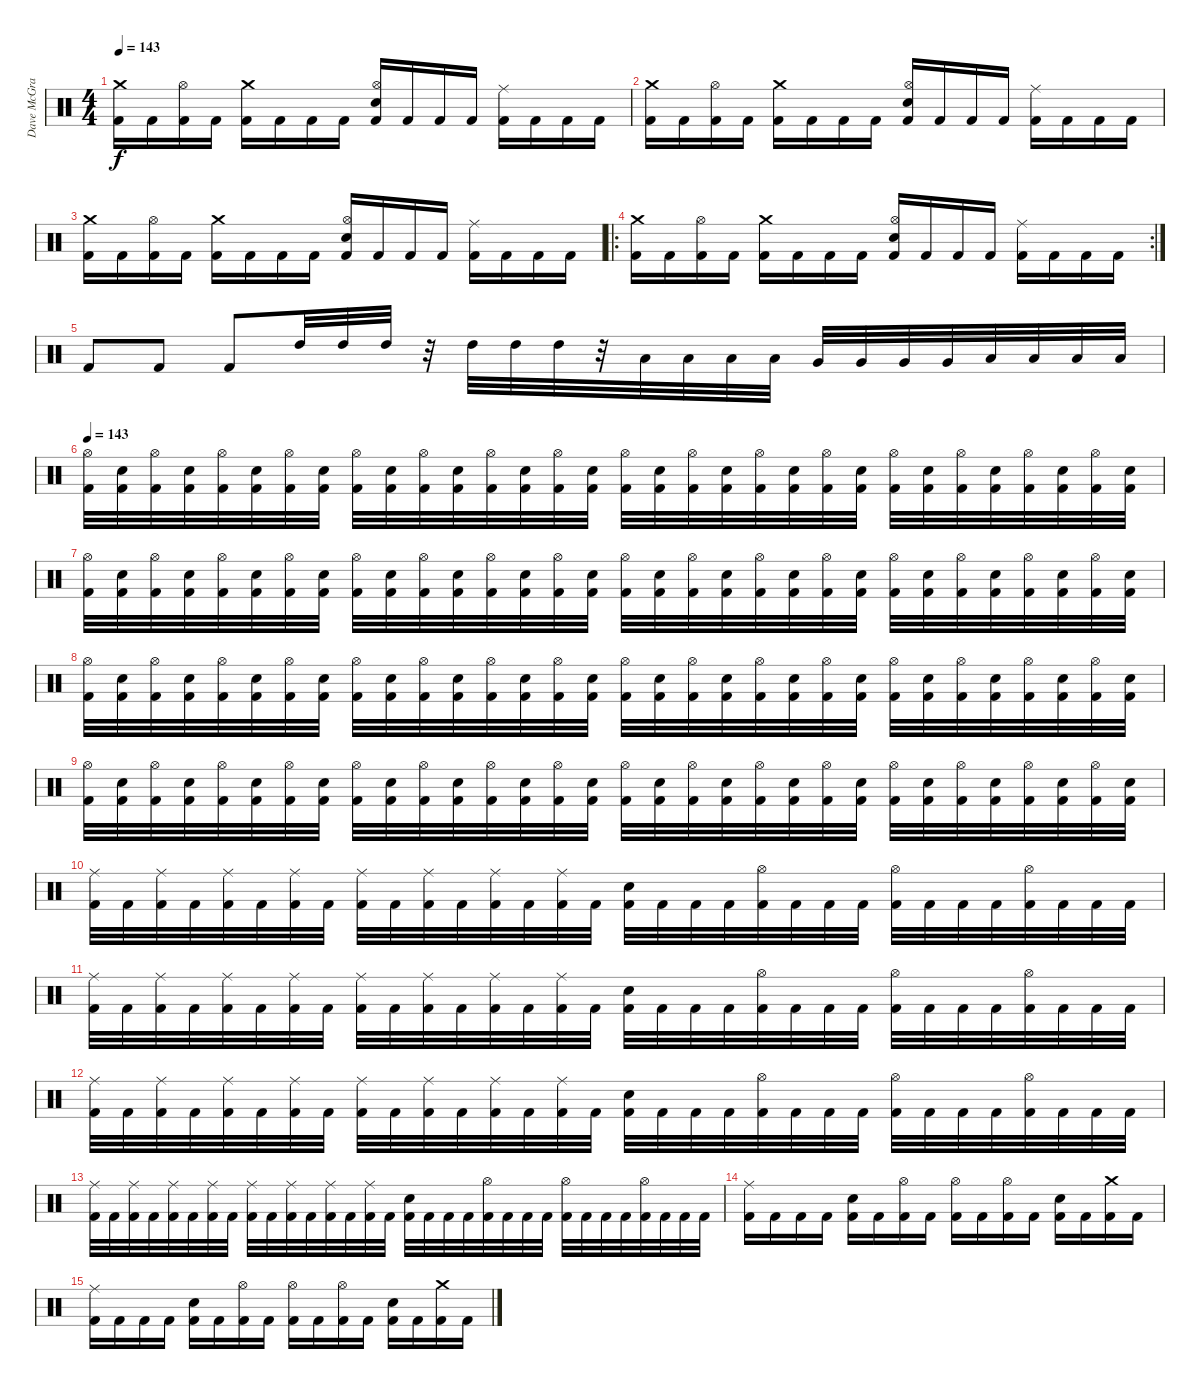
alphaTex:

\track ("Dave McGraw" "Dave McGra") {instrument percussion}
\staff {score}
\articulation defaults
\ts (4 4)
\tempo 143
\clef neutral
\ks c
("Crash medium (hit)" "Kick (hit) 2").16{dy f} "Kick (hit) 2".16 ("Hi-Hat (open)" "Kick (hit) 2").16 "Kick (hit) 2".16 ("Crash medium (hit)" "Kick (hit) 2").16 "Kick (hit) 2".16 "Kick (hit) 2".16 "Kick (hit) 2".16 ("Hi-Hat (open)" "Electric Snare (hit)" "Kick (hit) 2").16 "Kick (hit) 2".16 "Kick (hit) 2".16 "Kick (hit) 2".16 ("Ride (middle)" "Kick (hit) 2").16 "Kick (hit) 2".16 "Kick (hit) 2".16 "Kick (hit) 2".16 |
("Crash medium (hit)" "Kick (hit) 2").16 "Kick (hit) 2".16 ("Hi-Hat (open)" "Kick (hit) 2").16 "Kick (hit) 2".16 ("Crash medium (hit)" "Kick (hit) 2").16 "Kick (hit) 2".16 "Kick (hit) 2".16 "Kick (hit) 2".16 ("Hi-Hat (open)" "Electric Snare (hit)" "Kick (hit) 2").16 "Kick (hit) 2".16 "Kick (hit) 2".16 "Kick (hit) 2".16 ("Ride (middle)" "Kick (hit) 2").16 "Kick (hit) 2".16 "Kick (hit) 2".16 "Kick (hit) 2".16 |
("Crash medium (hit)" "Kick (hit) 2").16 "Kick (hit) 2".16 ("Hi-Hat (open)" "Kick (hit) 2").16 "Kick (hit) 2".16 ("Crash medium (hit)" "Kick (hit) 2").16 "Kick (hit) 2".16 "Kick (hit) 2".16 "Kick (hit) 2".16 ("Hi-Hat (open)" "Electric Snare (hit)" "Kick (hit) 2").16 "Kick (hit) 2".16 "Kick (hit) 2".16 "Kick (hit) 2".16 ("Ride (middle)" "Kick (hit) 2").16 "Kick (hit) 2".16 "Kick (hit) 2".16 "Kick (hit) 2".16 |
\ro
\rc 2
("Crash medium (hit)" "Kick (hit) 2").16 "Kick (hit) 2".16 ("Hi-Hat (open)" "Kick (hit) 2").16 "Kick (hit) 2".16 ("Crash medium (hit)" "Kick (hit) 2").16 "Kick (hit) 2".16 "Kick (hit) 2".16 "Kick (hit) 2".16 ("Hi-Hat (open)" "Electric Snare (hit)" "Kick (hit) 2").16 "Kick (hit) 2".16 "Kick (hit) 2".16 "Kick (hit) 2".16 ("Ride (middle)" "Kick (hit) 2").16 "Kick (hit) 2".16 "Kick (hit) 2".16 "Kick (hit) 2".16 |
"Kick (hit) 2".8 "Kick (hit) 2".8 "Kick (hit) 2".8 "High Tom (hit)".32 "High Tom (hit)".32 "High Tom (hit)".32 r.32 "High Tom (hit)".32 "High Tom (hit)".32 "High Tom (hit)".32 r.32 "Low Tom (hit)".32 "Low Tom (hit)".32 "Low Tom (hit)".32 "Low Tom (hit)".32 "Very Low Tom (hit)".32 "Very Low Tom (hit)".32 "Very Low Tom (hit)".32 "Very Low Tom (hit)".32 "Low Floor Tom (hit)".32 "Low Floor Tom (hit)".32 "Low Floor Tom (hit)".32 "Low Floor Tom (hit)".32 |
\tempo 143
("Hi-Hat (open)" "Kick (hit) 2").32 ("Electric Snare (hit)" "Kick (hit) 2").32 ("Hi-Hat (open)" "Kick (hit) 2").32 ("Electric Snare (hit)" "Kick (hit) 2").32 ("Hi-Hat (open)" "Kick (hit) 2").32 ("Electric Snare (hit)" "Kick (hit) 2").32 ("Hi-Hat (open)" "Kick (hit) 2").32 ("Electric Snare (hit)" "Kick (hit) 2").32 ("Hi-Hat (open)" "Kick (hit) 2").32 ("Electric Snare (hit)" "Kick (hit) 2").32 ("Hi-Hat (open)" "Kick (hit) 2").32 ("Electric Snare (hit)" "Kick (hit) 2").32 ("Hi-Hat (open)" "Kick (hit) 2").32 ("Electric Snare (hit)" "Kick (hit) 2").32 ("Hi-Hat (open)" "Kick (hit) 2").32 ("Electric Snare (hit)" "Kick (hit) 2").32 ("Hi-Hat (open)" "Kick (hit) 2").32 ("Electric Snare (hit)" "Kick (hit) 2").32 ("Hi-Hat (open)" "Kick (hit) 2").32 ("Electric Snare (hit)" "Kick (hit) 2").32 ("Hi-Hat (open)" "Kick (hit) 2").32 ("Electric Snare (hit)" "Kick (hit) 2").32 ("Hi-Hat (open)" "Kick (hit) 2").32 ("Electric Snare (hit)" "Kick (hit) 2").32 ("Hi-Hat (open)" "Kick (hit) 2").32 ("Electric Snare (hit)" "Kick (hit) 2").32 ("Hi-Hat (open)" "Kick (hit) 2").32 ("Electric Snare (hit)" "Kick (hit) 2").32 ("Hi-Hat (open)" "Kick (hit) 2").32 ("Electric Snare (hit)" "Kick (hit) 2").32 ("Hi-Hat (open)" "Kick (hit) 2").32 ("Electric Snare (hit)" "Kick (hit) 2").32 |
("Hi-Hat (open)" "Kick (hit) 2").32 ("Electric Snare (hit)" "Kick (hit) 2").32 ("Hi-Hat (open)" "Kick (hit) 2").32 ("Electric Snare (hit)" "Kick (hit) 2").32 ("Hi-Hat (open)" "Kick (hit) 2").32 ("Electric Snare (hit)" "Kick (hit) 2").32 ("Hi-Hat (open)" "Kick (hit) 2").32 ("Electric Snare (hit)" "Kick (hit) 2").32 ("Hi-Hat (open)" "Kick (hit) 2").32 ("Electric Snare (hit)" "Kick (hit) 2").32 ("Hi-Hat (open)" "Kick (hit) 2").32 ("Electric Snare (hit)" "Kick (hit) 2").32 ("Hi-Hat (open)" "Kick (hit) 2").32 ("Electric Snare (hit)" "Kick (hit) 2").32 ("Hi-Hat (open)" "Kick (hit) 2").32 ("Electric Snare (hit)" "Kick (hit) 2").32 ("Hi-Hat (open)" "Kick (hit) 2").32 ("Electric Snare (hit)" "Kick (hit) 2").32 ("Hi-Hat (open)" "Kick (hit) 2").32 ("Electric Snare (hit)" "Kick (hit) 2").32 ("Hi-Hat (open)" "Kick (hit) 2").32 ("Electric Snare (hit)" "Kick (hit) 2").32 ("Hi-Hat (open)" "Kick (hit) 2").32 ("Electric Snare (hit)" "Kick (hit) 2").32 ("Hi-Hat (open)" "Kick (hit) 2").32 ("Electric Snare (hit)" "Kick (hit) 2").32 ("Hi-Hat (open)" "Kick (hit) 2").32 ("Electric Snare (hit)" "Kick (hit) 2").32 ("Hi-Hat (open)" "Kick (hit) 2").32 ("Electric Snare (hit)" "Kick (hit) 2").32 ("Hi-Hat (open)" "Kick (hit) 2").32 ("Electric Snare (hit)" "Kick (hit) 2").32 |
("Hi-Hat (open)" "Kick (hit) 2").32 ("Electric Snare (hit)" "Kick (hit) 2").32 ("Hi-Hat (open)" "Kick (hit) 2").32 ("Electric Snare (hit)" "Kick (hit) 2").32 ("Hi-Hat (open)" "Kick (hit) 2").32 ("Electric Snare (hit)" "Kick (hit) 2").32 ("Hi-Hat (open)" "Kick (hit) 2").32 ("Electric Snare (hit)" "Kick (hit) 2").32 ("Hi-Hat (open)" "Kick (hit) 2").32 ("Electric Snare (hit)" "Kick (hit) 2").32 ("Hi-Hat (open)" "Kick (hit) 2").32 ("Electric Snare (hit)" "Kick (hit) 2").32 ("Hi-Hat (open)" "Kick (hit) 2").32 ("Electric Snare (hit)" "Kick (hit) 2").32 ("Hi-Hat (open)" "Kick (hit) 2").32 ("Electric Snare (hit)" "Kick (hit) 2").32 ("Hi-Hat (open)" "Kick (hit) 2").32 ("Electric Snare (hit)" "Kick (hit) 2").32 ("Hi-Hat (open)" "Kick (hit) 2").32 ("Electric Snare (hit)" "Kick (hit) 2").32 ("Hi-Hat (open)" "Kick (hit) 2").32 ("Electric Snare (hit)" "Kick (hit) 2").32 ("Hi-Hat (open)" "Kick (hit) 2").32 ("Electric Snare (hit)" "Kick (hit) 2").32 ("Hi-Hat (open)" "Kick (hit) 2").32 ("Electric Snare (hit)" "Kick (hit) 2").32 ("Hi-Hat (open)" "Kick (hit) 2").32 ("Electric Snare (hit)" "Kick (hit) 2").32 ("Hi-Hat (open)" "Kick (hit) 2").32 ("Electric Snare (hit)" "Kick (hit) 2").32 ("Hi-Hat (open)" "Kick (hit) 2").32 ("Electric Snare (hit)" "Kick (hit) 2").32 |
("Hi-Hat (open)" "Kick (hit) 2").32 ("Electric Snare (hit)" "Kick (hit) 2").32 ("Hi-Hat (open)" "Kick (hit) 2").32 ("Electric Snare (hit)" "Kick (hit) 2").32 ("Hi-Hat (open)" "Kick (hit) 2").32 ("Electric Snare (hit)" "Kick (hit) 2").32 ("Hi-Hat (open)" "Kick (hit) 2").32 ("Electric Snare (hit)" "Kick (hit) 2").32 ("Hi-Hat (open)" "Kick (hit) 2").32 ("Electric Snare (hit)" "Kick (hit) 2").32 ("Hi-Hat (open)" "Kick (hit) 2").32 ("Electric Snare (hit)" "Kick (hit) 2").32 ("Hi-Hat (open)" "Kick (hit) 2").32 ("Electric Snare (hit)" "Kick (hit) 2").32 ("Hi-Hat (open)" "Kick (hit) 2").32 ("Electric Snare (hit)" "Kick (hit) 2").32 ("Hi-Hat (open)" "Kick (hit) 2").32 ("Electric Snare (hit)" "Kick (hit) 2").32 ("Hi-Hat (open)" "Kick (hit) 2").32 ("Electric Snare (hit)" "Kick (hit) 2").32 ("Hi-Hat (open)" "Kick (hit) 2").32 ("Electric Snare (hit)" "Kick (hit) 2").32 ("Hi-Hat (open)" "Kick (hit) 2").32 ("Electric Snare (hit)" "Kick (hit) 2").32 ("Hi-Hat (open)" "Kick (hit) 2").32 ("Electric Snare (hit)" "Kick (hit) 2").32 ("Hi-Hat (open)" "Kick (hit) 2").32 ("Electric Snare (hit)" "Kick (hit) 2").32 ("Hi-Hat (open)" "Kick (hit) 2").32 ("Electric Snare (hit)" "Kick (hit) 2").32 ("Hi-Hat (open)" "Kick (hit) 2").32 ("Electric Snare (hit)" "Kick (hit) 2").32 |
("Ride (middle)" "Kick (hit) 2").32 "Kick (hit) 2".32 ("Ride (middle)" "Kick (hit) 2").32 "Kick (hit) 2".32 ("Ride (middle)" "Kick (hit) 2").32 "Kick (hit) 2".32 ("Ride (middle)" "Kick (hit) 2").32 "Kick (hit) 2".32 ("Ride (middle)" "Kick (hit) 2").32 "Kick (hit) 2".32 ("Ride (middle)" "Kick (hit) 2").32 "Kick (hit) 2".32 ("Ride (middle)" "Kick (hit) 2").32 "Kick (hit) 2".32 ("Ride (middle)" "Kick (hit) 2").32 "Kick (hit) 2".32 ("Electric Snare (hit)" "Kick (hit) 2").32 "Kick (hit) 2".32 "Kick (hit) 2".32 "Kick (hit) 2".32 ("Hi-Hat (open)" "Kick (hit) 2").32 "Kick (hit) 2".32 "Kick (hit) 2".32 "Kick (hit) 2".32 ("Hi-Hat (open)" "Kick (hit) 2").32 "Kick (hit) 2".32 "Kick (hit) 2".32 "Kick (hit) 2".32 ("Hi-Hat (open)" "Kick (hit) 2").32 "Kick (hit) 2".32 "Kick (hit) 2".32 "Kick (hit) 2".32 |
("Ride (middle)" "Kick (hit) 2").32 "Kick (hit) 2".32 ("Ride (middle)" "Kick (hit) 2").32 "Kick (hit) 2".32 ("Ride (middle)" "Kick (hit) 2").32 "Kick (hit) 2".32 ("Ride (middle)" "Kick (hit) 2").32 "Kick (hit) 2".32 ("Ride (middle)" "Kick (hit) 2").32 "Kick (hit) 2".32 ("Ride (middle)" "Kick (hit) 2").32 "Kick (hit) 2".32 ("Ride (middle)" "Kick (hit) 2").32 "Kick (hit) 2".32 ("Ride (middle)" "Kick (hit) 2").32 "Kick (hit) 2".32 ("Electric Snare (hit)" "Kick (hit) 2").32 "Kick (hit) 2".32 "Kick (hit) 2".32 "Kick (hit) 2".32 ("Hi-Hat (open)" "Kick (hit) 2").32 "Kick (hit) 2".32 "Kick (hit) 2".32 "Kick (hit) 2".32 ("Hi-Hat (open)" "Kick (hit) 2").32 "Kick (hit) 2".32 "Kick (hit) 2".32 "Kick (hit) 2".32 ("Hi-Hat (open)" "Kick (hit) 2").32 "Kick (hit) 2".32 "Kick (hit) 2".32 "Kick (hit) 2".32 |
("Ride (middle)" "Kick (hit) 2").32 "Kick (hit) 2".32 ("Ride (middle)" "Kick (hit) 2").32 "Kick (hit) 2".32 ("Ride (middle)" "Kick (hit) 2").32 "Kick (hit) 2".32 ("Ride (middle)" "Kick (hit) 2").32 "Kick (hit) 2".32 ("Ride (middle)" "Kick (hit) 2").32 "Kick (hit) 2".32 ("Ride (middle)" "Kick (hit) 2").32 "Kick (hit) 2".32 ("Ride (middle)" "Kick (hit) 2").32 "Kick (hit) 2".32 ("Ride (middle)" "Kick (hit) 2").32 "Kick (hit) 2".32 ("Electric Snare (hit)" "Kick (hit) 2").32 "Kick (hit) 2".32 "Kick (hit) 2".32 "Kick (hit) 2".32 ("Hi-Hat (open)" "Kick (hit) 2").32 "Kick (hit) 2".32 "Kick (hit) 2".32 "Kick (hit) 2".32 ("Hi-Hat (open)" "Kick (hit) 2").32 "Kick (hit) 2".32 "Kick (hit) 2".32 "Kick (hit) 2".32 ("Hi-Hat (open)" "Kick (hit) 2").32 "Kick (hit) 2".32 "Kick (hit) 2".32 "Kick (hit) 2".32 |
("Ride (middle)" "Kick (hit) 2").32 "Kick (hit) 2".32 ("Ride (middle)" "Kick (hit) 2").32 "Kick (hit) 2".32 ("Ride (middle)" "Kick (hit) 2").32 "Kick (hit) 2".32 ("Ride (middle)" "Kick (hit) 2").32 "Kick (hit) 2".32 ("Ride (middle)" "Kick (hit) 2").32 "Kick (hit) 2".32 ("Ride (middle)" "Kick (hit) 2").32 "Kick (hit) 2".32 ("Ride (middle)" "Kick (hit) 2").32 "Kick (hit) 2".32 ("Ride (middle)" "Kick (hit) 2").32 "Kick (hit) 2".32 ("Electric Snare (hit)" "Kick (hit) 2").32 "Kick (hit) 2".32 "Kick (hit) 2".32 "Kick (hit) 2".32 ("Hi-Hat (open)" "Kick (hit) 2").32 "Kick (hit) 2".32 "Kick (hit) 2".32 "Kick (hit) 2".32 ("Hi-Hat (open)" "Kick (hit) 2").32 "Kick (hit) 2".32 "Kick (hit) 2".32 "Kick (hit) 2".32 ("Hi-Hat (open)" "Kick (hit) 2").32 "Kick (hit) 2".32 "Kick (hit) 2".32 "Kick (hit) 2".32 |
("Ride (middle)" "Kick (hit) 2").16 "Kick (hit) 2".16 "Kick (hit) 2".16 "Kick (hit) 2".16 ("Electric Snare (hit)" "Kick (hit) 2").16 "Kick (hit) 2".16 ("Hi-Hat (open)" "Kick (hit) 2").16 "Kick (hit) 2".16 ("Hi-Hat (open)" "Kick (hit) 2").16 "Kick (hit) 2".16 ("Hi-Hat (open)" "Kick (hit) 2").16 "Kick (hit) 2".16 ("Electric Snare (hit)" "Kick (hit) 2").16 "Kick (hit) 2".16 ("Crash medium (hit)" "Kick (hit) 2").16 "Kick (hit) 2".16 |
("Ride (middle)" "Kick (hit) 2").16 "Kick (hit) 2".16 "Kick (hit) 2".16 "Kick (hit) 2".16 ("Electric Snare (hit)" "Kick (hit) 2").16 "Kick (hit) 2".16 ("Hi-Hat (open)" "Kick (hit) 2").16 "Kick (hit) 2".16 ("Hi-Hat (open)" "Kick (hit) 2").16 "Kick (hit) 2".16 ("Hi-Hat (open)" "Kick (hit) 2").16 "Kick (hit) 2".16 ("Electric Snare (hit)" "Kick (hit) 2").16 "Kick (hit) 2".16 ("Crash medium (hit)" "Kick (hit) 2").16 "Kick (hit) 2".16
